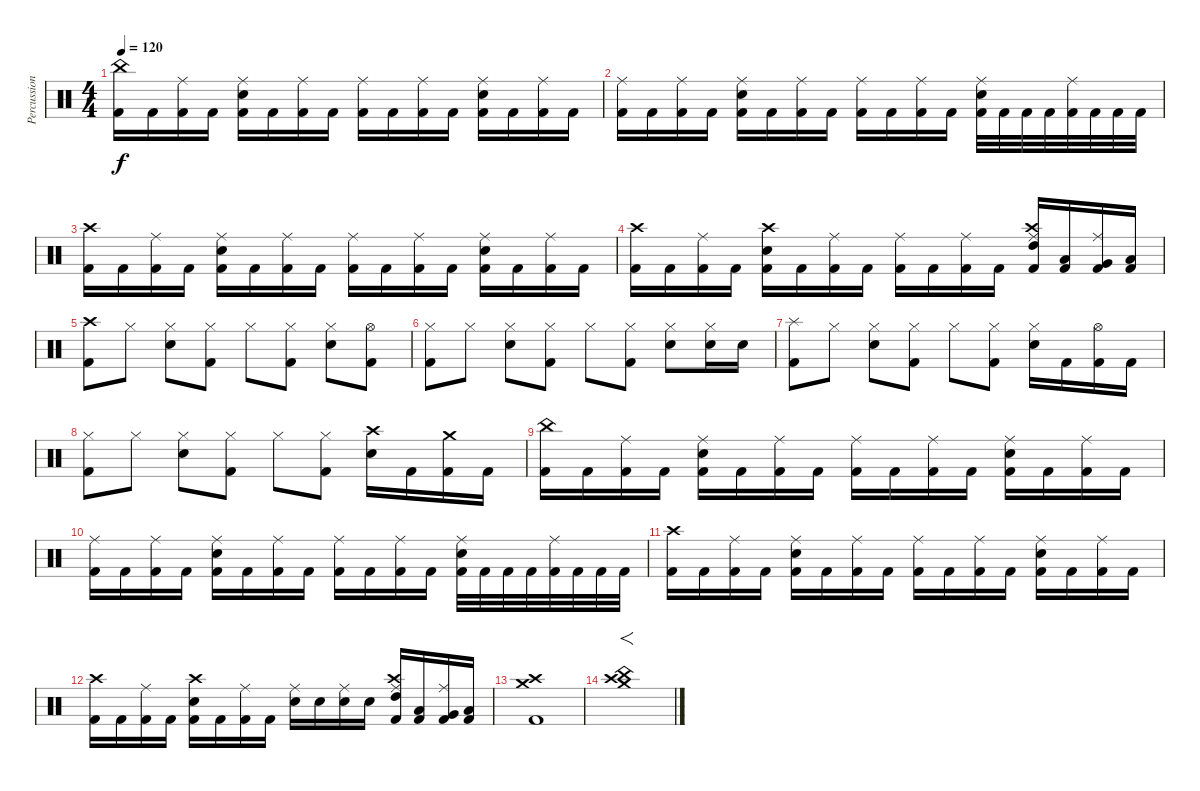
\track ("Percussion" "Percussion") {instrument percussion}
\staff {score}
\articulation defaults
\ts (4 4)
\tempo 120
\clef neutral
\ks c
("China (hit)" "Kick (hit) 2").16{dy f} "Kick (hit) 2".16 ("Ride (middle)" "Kick (hit) 2").16 "Kick (hit) 2".16 ("Ride (middle)" "Snare (hit) 2" "Kick (hit) 2").16 "Kick (hit) 2".16 ("Ride (middle)" "Kick (hit) 2").16 "Kick (hit) 2".16 ("Ride (middle)" "Kick (hit) 2").16 "Kick (hit) 2".16 ("Ride (middle)" "Kick (hit) 2").16 "Kick (hit) 2".16 ("Ride (middle)" "Snare (hit) 2" "Kick (hit) 2").16 "Kick (hit) 2".16 ("Ride (middle)" "Kick (hit) 2").16 "Kick (hit) 2".16 |
("Ride (middle)" "Kick (hit) 2").16 "Kick (hit) 2".16 ("Ride (middle)" "Kick (hit) 2").16 "Kick (hit) 2".16 ("Ride (middle)" "Snare (hit) 2" "Kick (hit) 2").16 "Kick (hit) 2".16 ("Ride (middle)" "Kick (hit) 2").16 "Kick (hit) 2".16 ("Ride (middle)" "Kick (hit) 2").16 "Kick (hit) 2".16 ("Ride (middle)" "Kick (hit) 2").16 "Kick (hit) 2".16 ("Ride (middle)" "Snare (hit) 2" "Kick (hit) 2").32 "Kick (hit) 2".32 "Kick (hit) 2".32 "Kick (hit) 2".32 ("Ride (middle)" "Kick (hit) 2").32 "Kick (hit) 2".32 "Kick (hit) 2".32 "Kick (hit) 2".32 |
("Crash high (hit)" "Kick (hit) 2").16 "Kick (hit) 2".16 ("Ride (middle)" "Kick (hit) 2").16 "Kick (hit) 2".16 ("Ride (middle)" "Snare (hit) 2" "Kick (hit) 2").16 "Kick (hit) 2".16 ("Ride (middle)" "Kick (hit) 2").16 "Kick (hit) 2".16 ("Ride (middle)" "Kick (hit) 2").16 "Kick (hit) 2".16 ("Ride (middle)" "Kick (hit) 2").16 "Kick (hit) 2".16 ("Ride (middle)" "Snare (hit) 2" "Kick (hit) 2").16 "Kick (hit) 2".16 ("Ride (middle)" "Kick (hit) 2").16 "Kick (hit) 2".16 |
("Crash high (hit)" "Kick (hit) 2").16 "Kick (hit) 2".16 ("Ride (middle)" "Kick (hit) 2").16 "Kick (hit) 2".16 ("Crash high (hit)" "Snare (hit) 2" "Kick (hit) 2").16 "Kick (hit) 2".16 ("Ride (middle)" "Kick (hit) 2").16 "Kick (hit) 2".16 ("Ride (middle)" "Kick (hit) 2").16 "Kick (hit) 2".16 ("Ride (middle)" "Kick (hit) 2").16 "Kick (hit) 2".16 ("Crash high (hit)" "Ride (middle)" "High Tom (hit)" "Kick (hit) 2").16 ("Low Tom (hit)" "Kick (hit) 2").16 ("Ride (middle)" "Very Low Tom (hit)" "Kick (hit) 2").16 ("Low Floor Tom (hit)" "Kick (hit) 2").16 |
("Crash high (hit)" "Kick (hit) 2").8 "Hi-Hat (closed)".8 ("Hi-Hat (closed)" "Snare (hit) 2").8 ("Hi-Hat (closed)" "Kick (hit) 2").8 "Hi-Hat (closed)".8 ("Hi-Hat (closed)" "Kick (hit) 2").8 ("Hi-Hat (closed)" "Snare (hit) 2").8 ("Hi-Hat (open)" "Kick (hit) 2").8 |
("Hi-Hat (closed)" "Kick (hit) 2").8 "Hi-Hat (closed)".8 ("Hi-Hat (closed)" "Snare (hit) 2").8 ("Hi-Hat (closed)" "Kick (hit) 2").8 "Hi-Hat (closed)".8 ("Hi-Hat (closed)" "Kick (hit) 2").8 ("Hi-Hat (closed)" "Snare (hit) 2").8 ("Hi-Hat (closed)" "Snare (hit) 2").16 "Snare (hit) 2".16 |
("Splash (hit)" "Kick (hit) 2").8 "Hi-Hat (closed)".8 ("Hi-Hat (closed)" "Snare (hit) 2").8 ("Hi-Hat (closed)" "Kick (hit) 2").8 "Hi-Hat (closed)".8 ("Hi-Hat (closed)" "Kick (hit) 2").8 ("Hi-Hat (closed)" "Snare (hit) 2").16 "Kick (hit) 2".16 ("Hi-Hat (open)" "Kick (hit) 2").16 "Kick (hit) 2".16 |
("Hi-Hat (closed)" "Kick (hit) 2").8 "Hi-Hat (closed)".8 ("Hi-Hat (closed)" "Snare (hit) 2").8 ("Hi-Hat (closed)" "Kick (hit) 2").8 "Hi-Hat (closed)".8 ("Hi-Hat (closed)" "Kick (hit) 2").8 ("Crash high (hit)" "Snare (hit) 2").16 "Kick (hit) 2".16 ("Crash medium (hit)" "Kick (hit) 2").16 "Kick (hit) 2".16 |
("China (hit)" "Kick (hit) 2").16 "Kick (hit) 2".16 ("Ride (middle)" "Kick (hit) 2").16 "Kick (hit) 2".16 ("Ride (middle)" "Snare (hit) 2" "Kick (hit) 2").16 "Kick (hit) 2".16 ("Ride (middle)" "Kick (hit) 2").16 "Kick (hit) 2".16 ("Ride (middle)" "Kick (hit) 2").16 "Kick (hit) 2".16 ("Ride (middle)" "Kick (hit) 2").16 "Kick (hit) 2".16 ("Ride (middle)" "Snare (hit) 2" "Kick (hit) 2").16 "Kick (hit) 2".16 ("Ride (middle)" "Kick (hit) 2").16 "Kick (hit) 2".16 |
("Ride (middle)" "Kick (hit) 2").16 "Kick (hit) 2".16 ("Ride (middle)" "Kick (hit) 2").16 "Kick (hit) 2".16 ("Ride (middle)" "Snare (hit) 2" "Kick (hit) 2").16 "Kick (hit) 2".16 ("Ride (middle)" "Kick (hit) 2").16 "Kick (hit) 2".16 ("Ride (middle)" "Kick (hit) 2").16 "Kick (hit) 2".16 ("Ride (middle)" "Kick (hit) 2").16 "Kick (hit) 2".16 ("Ride (middle)" "Snare (hit) 2" "Kick (hit) 2").32 "Kick (hit) 2".32 "Kick (hit) 2".32 "Kick (hit) 2".32 ("Ride (middle)" "Kick (hit) 2").32 "Kick (hit) 2".32 "Kick (hit) 2".32 "Kick (hit) 2".32 |
("Crash high (hit)" "Kick (hit) 2").16 "Kick (hit) 2".16 ("Ride (middle)" "Kick (hit) 2").16 "Kick (hit) 2".16 ("Ride (middle)" "Snare (hit) 2" "Kick (hit) 2").16 "Kick (hit) 2".16 ("Ride (middle)" "Kick (hit) 2").16 "Kick (hit) 2".16 ("Ride (middle)" "Kick (hit) 2").16 "Kick (hit) 2".16 ("Ride (middle)" "Kick (hit) 2").16 "Kick (hit) 2".16 ("Ride (middle)" "Snare (hit) 2" "Kick (hit) 2").16 "Kick (hit) 2".16 ("Ride (middle)" "Kick (hit) 2").16 "Kick (hit) 2".16 |
("Crash high (hit)" "Kick (hit) 2").16 "Kick (hit) 2".16 ("Ride (middle)" "Kick (hit) 2").16 "Kick (hit) 2".16 ("Crash high (hit)" "Snare (hit) 2" "Kick (hit) 2").16 "Kick (hit) 2".16 ("Ride (middle)" "Kick (hit) 2").16 "Kick (hit) 2".16 ("Ride (middle)" "Snare (hit) 2").16 "Snare (hit) 2".16 ("Ride (middle)" "Snare (hit) 2").16 "Snare (hit) 2".16 ("Crash high (hit)" "Ride (middle)" "High Tom (hit)" "Kick (hit) 2").16 ("Low Tom (hit)" "Kick (hit) 2").16 ("Ride (middle)" "Very Low Tom (hit)" "Kick (hit) 2").16 ("Low Floor Tom (hit)" "Kick (hit) 2").16 |
("Crash high (hit)" "Crash medium (hit)" "Kick (hit) 2").1 |
("Crash high (hit)" "Crash medium (hit)" "China (hit)").1{f}
